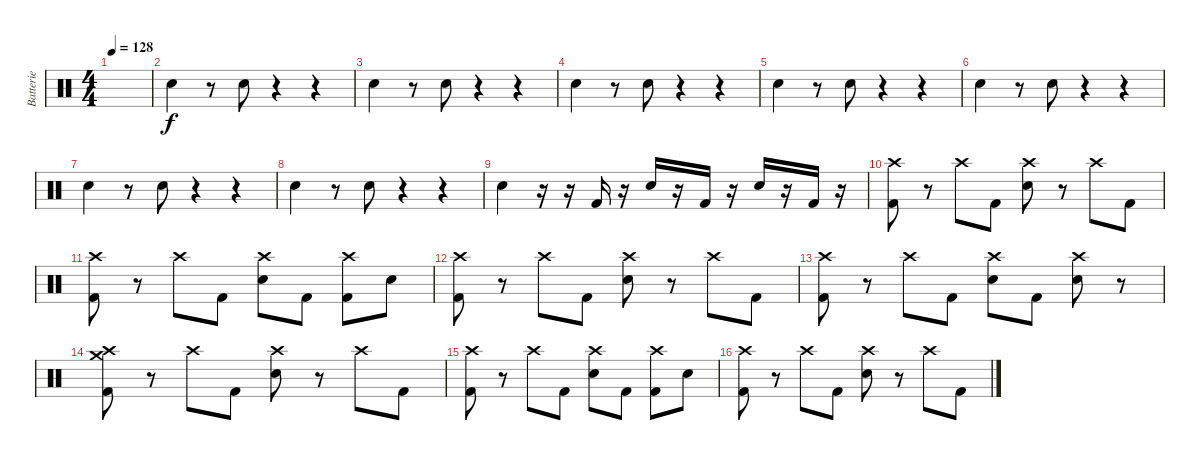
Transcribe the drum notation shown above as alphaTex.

\track ("Batterie" "Batterie") {instrument percussion}
\staff {score}
\articulation defaults
\ts (4 4)
\tempo 128
\clef neutral
\ks c
|
"Electric Snare (hit)".4 r.8 "Electric Snare (hit)".8 r.4 r.4 |
"Electric Snare (hit)".4 r.8 "Electric Snare (hit)".8 r.4 r.4 |
"Electric Snare (hit)".4 r.8 "Electric Snare (hit)".8 r.4 r.4 |
"Electric Snare (hit)".4 r.8 "Electric Snare (hit)".8 r.4 r.4 |
"Electric Snare (hit)".4 r.8 "Electric Snare (hit)".8 r.4 r.4 |
"Electric Snare (hit)".4 r.8 "Electric Snare (hit)".8 r.4 r.4 |
"Electric Snare (hit)".4 r.8 "Electric Snare (hit)".8 r.4 r.4 |
"Electric Snare (hit)".4 r.16 r.16 "Kick (hit) 2".16 r.16 "Electric Snare (hit)".16 r.16 "Kick (hit) 2".16 r.16 "Electric Snare (hit)".16 r.16 "Kick (hit) 2".16 r.16 |
("Kick (hit) 2" "Crash high (hit)").8 r.8 "Crash high (hit)".8 "Kick (hit) 2".8 ("Electric Snare (hit)" "Crash high (hit)").8 r.8 "Crash high (hit)".8 "Kick (hit) 2".8 |
("Kick (hit) 2" "Crash high (hit)").8 r.8 "Crash high (hit)".8 "Kick (hit) 2".8 ("Electric Snare (hit)" "Crash high (hit)").8 "Kick (hit) 2".8 ("Kick (hit) 2" "Crash high (hit)").8 "Electric Snare (hit)".8 |
("Kick (hit) 2" "Crash high (hit)").8 r.8 "Crash high (hit)".8 "Kick (hit) 2".8 ("Electric Snare (hit)" "Crash high (hit)").8 r.8 "Crash high (hit)".8 "Kick (hit) 2".8 |
("Kick (hit) 2" "Crash high (hit)").8 r.8 "Crash high (hit)".8 "Kick (hit) 2".8 ("Electric Snare (hit)" "Crash high (hit)").8 "Kick (hit) 2".8 ("Electric Snare (hit)" "Crash high (hit)").8 r.8 |
("Kick (hit) 2" "Crash medium (hit)" "Crash high (hit)").8 r.8 "Crash high (hit)".8 "Kick (hit) 2".8 ("Electric Snare (hit)" "Crash high (hit)").8 r.8 "Crash high (hit)".8 "Kick (hit) 2".8 |
("Kick (hit) 2" "Crash high (hit)").8 r.8 "Crash high (hit)".8 "Kick (hit) 2".8 ("Electric Snare (hit)" "Crash high (hit)").8 "Kick (hit) 2".8 ("Kick (hit) 2" "Crash high (hit)").8 "Electric Snare (hit)".8 |
("Kick (hit) 2" "Crash high (hit)").8 r.8 "Crash high (hit)".8 "Kick (hit) 2".8 ("Electric Snare (hit)" "Crash high (hit)").8 r.8 "Crash high (hit)".8 "Kick (hit) 2".8
